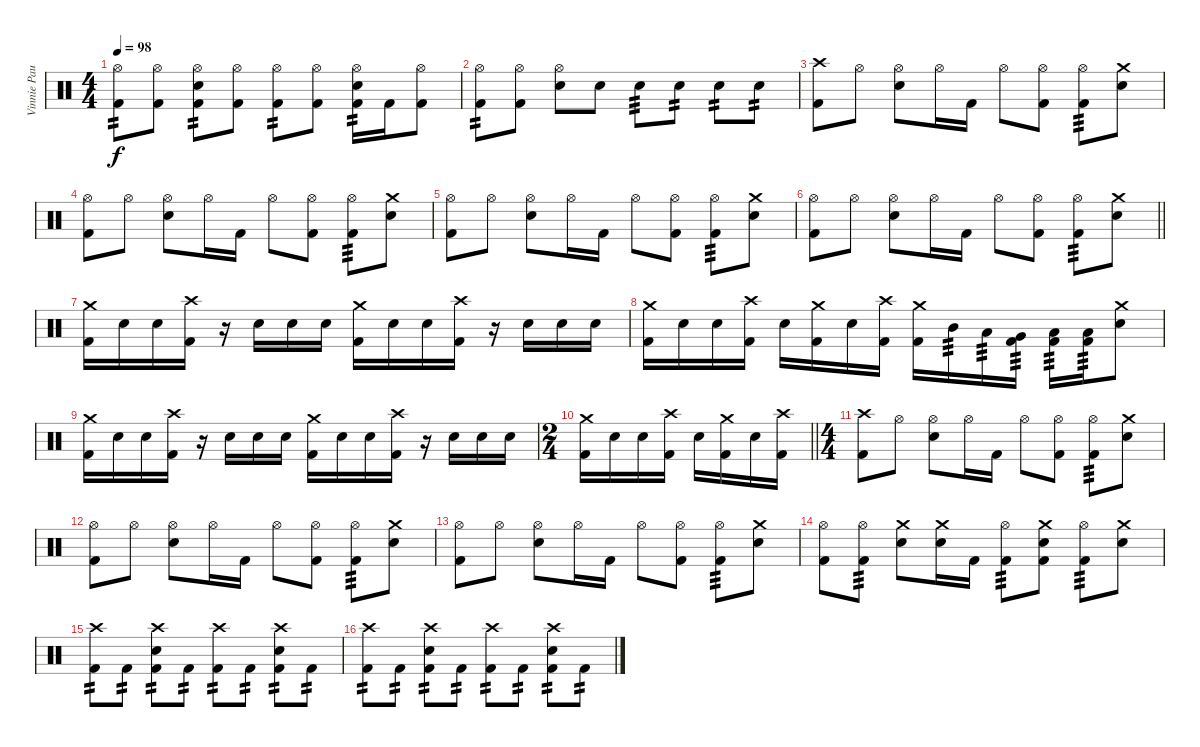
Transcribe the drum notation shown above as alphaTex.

\track ("Vinnie Paul" "Vinnie Pau") {instrument percussion}
\staff {score}
\articulation defaults
\ts (4 4)
\tempo 98
\clef neutral
\ks c
("Hi-Hat (open)" "Kick (hit) 2").8{tp 2 dy f} ("Hi-Hat (open)" "Kick (hit) 2").8 ("Hi-Hat (open)" "Snare (hit) 2" "Kick (hit) 2").8{tp 2} ("Hi-Hat (open)" "Kick (hit) 2").8 ("Hi-Hat (open)" "Kick (hit) 2").8{tp 2} ("Hi-Hat (open)" "Kick (hit) 2").8 ("Hi-Hat (open)" "Snare (hit) 2" "Kick (hit) 2").16{tp 2} "Kick (hit) 2".16 ("Hi-Hat (open)" "Kick (hit) 2").8 |
("Hi-Hat (open)" "Kick (hit) 2").8{tp 2} ("Hi-Hat (open)" "Kick (hit) 2").8 ("Hi-Hat (open)" "Snare (hit) 2").8 "Snare (hit) 2".8 "Snare (hit) 2".8{tp 3} "Snare (hit) 2".8{tp 2} "Snare (hit) 2".8{tp 2} "Snare (hit) 2".8{tp 2} |
("Crash high (hit)" "Kick (hit) 2").8 "Hi-Hat (open)".8 ("Hi-Hat (open)" "Snare (hit) 2").8 "Hi-Hat (open)".16 "Kick (hit) 2".16 "Hi-Hat (open)".8 ("Hi-Hat (open)" "Kick (hit) 2").8 ("Hi-Hat (open)" "Kick (hit) 2").8{tp 3} ("Crash medium (hit)" "Snare (hit) 2").8 |
("Hi-Hat (open)" "Kick (hit) 2").8 "Hi-Hat (open)".8 ("Hi-Hat (open)" "Snare (hit) 2").8 "Hi-Hat (open)".16 "Kick (hit) 2".16 "Hi-Hat (open)".8 ("Hi-Hat (open)" "Kick (hit) 2").8 ("Hi-Hat (open)" "Kick (hit) 2").8{tp 3} ("Crash medium (hit)" "Snare (hit) 2").8 |
("Hi-Hat (open)" "Kick (hit) 2").8 "Hi-Hat (open)".8 ("Hi-Hat (open)" "Snare (hit) 2").8 "Hi-Hat (open)".16 "Kick (hit) 2".16 "Hi-Hat (open)".8 ("Hi-Hat (open)" "Kick (hit) 2").8 ("Hi-Hat (open)" "Kick (hit) 2").8{tp 3} ("Crash medium (hit)" "Snare (hit) 2").8 |
\barLineRight lightlight
("Hi-Hat (open)" "Kick (hit) 2").8 "Hi-Hat (open)".8 ("Hi-Hat (open)" "Snare (hit) 2").8 "Hi-Hat (open)".16 "Kick (hit) 2".16 "Hi-Hat (open)".8 ("Hi-Hat (open)" "Kick (hit) 2").8 ("Hi-Hat (open)" "Kick (hit) 2").8{tp 3} ("Crash medium (hit)" "Snare (hit) 2").8 |
("Crash medium (hit)" "Kick (hit) 2").16 "Snare (hit) 2".16 "Snare (hit) 2".16 ("Crash high (hit)" "Kick (hit) 2").16 r.16 "Snare (hit) 2".16 "Snare (hit) 2".16 "Snare (hit) 2".16 ("Crash medium (hit)" "Kick (hit) 2").16 "Snare (hit) 2".16 "Snare (hit) 2".16 ("Crash high (hit)" "Kick (hit) 2").16 r.16 "Snare (hit) 2".16 "Snare (hit) 2".16 "Snare (hit) 2".16 |
("Crash medium (hit)" "Kick (hit) 2").16 "Snare (hit) 2".16 "Snare (hit) 2".16 ("Crash high (hit)" "Kick (hit) 2").16 "Snare (hit) 2".16 ("Crash medium (hit)" "Kick (hit) 2").16 "Snare (hit) 2".16 ("Crash high (hit)" "Kick (hit) 2").16 ("Crash medium (hit)" "Kick (hit) 2").16 "Mid Tom (hit)".16{tp 3} "Low Tom (hit)".16{tp 3} ("Very Low Tom (hit)" "Kick (hit) 2").16{tp 3} ("Low Floor Tom (hit)" "Kick (hit) 2").16{tp 3} ("Low Floor Tom (hit)" "Kick (hit) 2").16{tp 3} ("Crash medium (hit)" "Snare (hit) 2").8 |
("Crash medium (hit)" "Kick (hit) 2").16 "Snare (hit) 2".16 "Snare (hit) 2".16 ("Crash high (hit)" "Kick (hit) 2").16 r.16 "Snare (hit) 2".16 "Snare (hit) 2".16 "Snare (hit) 2".16 ("Crash medium (hit)" "Kick (hit) 2").16 "Snare (hit) 2".16 "Snare (hit) 2".16 ("Crash high (hit)" "Kick (hit) 2").16 r.16 "Snare (hit) 2".16 "Snare (hit) 2".16 "Snare (hit) 2".16 |
\ts (2 4)
\barLineRight lightlight
("Crash medium (hit)" "Kick (hit) 2").16 "Snare (hit) 2".16 "Snare (hit) 2".16 ("Crash high (hit)" "Kick (hit) 2").16 "Snare (hit) 2".16 ("Crash medium (hit)" "Kick (hit) 2").16 "Snare (hit) 2".16 ("Crash high (hit)" "Kick (hit) 2").16 |
\ts (4 4)
("Crash high (hit)" "Kick (hit) 2").8 "Hi-Hat (open)".8 ("Hi-Hat (open)" "Snare (hit) 2").8 "Hi-Hat (open)".16 "Kick (hit) 2".16 "Hi-Hat (open)".8 ("Hi-Hat (open)" "Kick (hit) 2").8 ("Hi-Hat (open)" "Kick (hit) 2").8{tp 3} ("Crash medium (hit)" "Snare (hit) 2").8 |
("Hi-Hat (open)" "Kick (hit) 2").8 "Hi-Hat (open)".8 ("Hi-Hat (open)" "Snare (hit) 2").8 "Hi-Hat (open)".16 "Kick (hit) 2".16 "Hi-Hat (open)".8 ("Hi-Hat (open)" "Kick (hit) 2").8 ("Hi-Hat (open)" "Kick (hit) 2").8{tp 3} ("Crash medium (hit)" "Snare (hit) 2").8 |
("Hi-Hat (open)" "Kick (hit) 2").8 "Hi-Hat (open)".8 ("Hi-Hat (open)" "Snare (hit) 2").8 "Hi-Hat (open)".16 "Kick (hit) 2".16 "Hi-Hat (open)".8 ("Hi-Hat (open)" "Kick (hit) 2").8 ("Hi-Hat (open)" "Kick (hit) 2").8{tp 3} ("Crash medium (hit)" "Snare (hit) 2").8 |
("Hi-Hat (open)" "Kick (hit) 2").8 ("Hi-Hat (open)" "Kick (hit) 2").8{tp 3} ("Crash medium (hit)" "Snare (hit) 2").8 ("Crash medium (hit)" "Snare (hit) 2").16 "Kick (hit) 2".16 ("Hi-Hat (open)" "Kick (hit) 2").8{tp 3} ("Crash medium (hit)" "Snare (hit) 2" "Kick (hit) 2").8 ("Hi-Hat (open)" "Kick (hit) 2").8{tp 3} ("Crash medium (hit)" "Snare (hit) 2").8 |
("Crash high (hit)" "Kick (hit) 2").8{tp 2} "Kick (hit) 2".8{tp 2} ("Crash high (hit)" "Snare (hit) 2" "Kick (hit) 2").8{tp 2} "Kick (hit) 2".8{tp 2} ("Crash high (hit)" "Kick (hit) 2").8{tp 2} "Kick (hit) 2".8{tp 2} ("Crash high (hit)" "Snare (hit) 2" "Kick (hit) 2").8{tp 2} "Kick (hit) 2".8{tp 2} |
("Crash high (hit)" "Kick (hit) 2").8{tp 2} "Kick (hit) 2".8{tp 2} ("Crash high (hit)" "Snare (hit) 2" "Kick (hit) 2").8{tp 2} "Kick (hit) 2".8{tp 2} ("Crash high (hit)" "Kick (hit) 2").8{tp 2} "Kick (hit) 2".8{tp 2} ("Crash high (hit)" "Snare (hit) 2" "Kick (hit) 2").8{tp 2} "Kick (hit) 2".8{tp 2}
